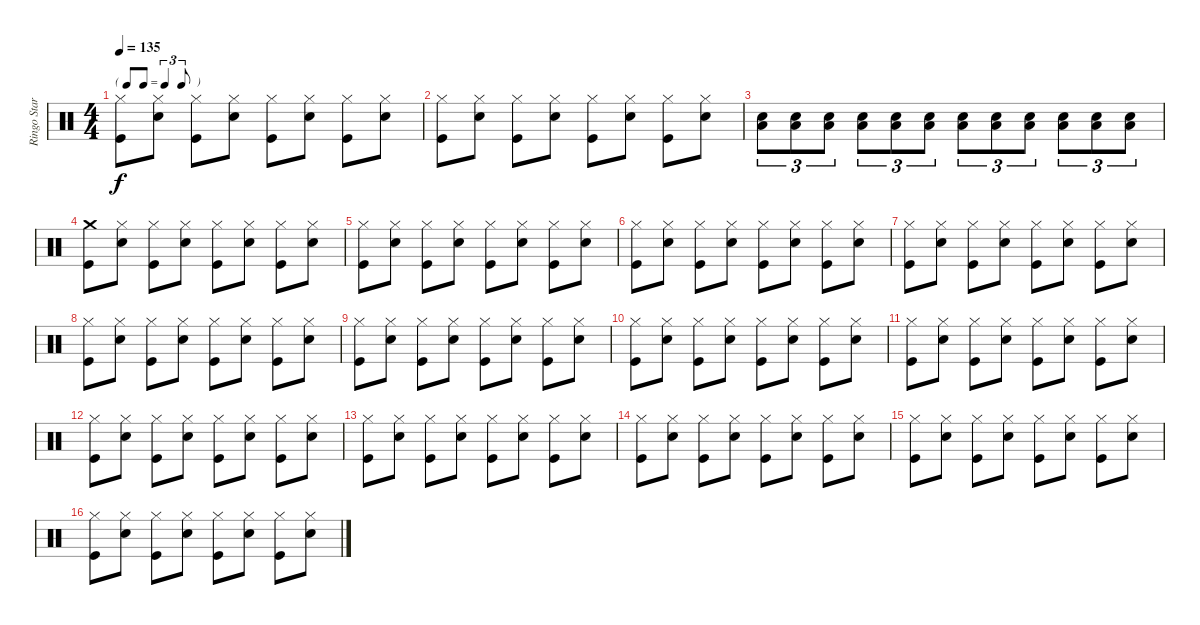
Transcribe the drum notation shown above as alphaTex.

\track ("Ringo Star" "Ringo Star") {instrument percussion}
\staff {score}
\articulation defaults
\ts (4 4)
\tf triplet8th
\tempo 135
\clef neutral
\ks c
("Hi-Hat (closed)" "Kick (hit)").8{dy f} ("Hi-Hat (closed)" "Snare (hit) 2").8 ("Hi-Hat (closed)" "Kick (hit)").8 ("Hi-Hat (closed)" "Snare (hit) 2").8 ("Hi-Hat (closed)" "Kick (hit)").8 ("Hi-Hat (closed)" "Snare (hit) 2").8 ("Hi-Hat (closed)" "Kick (hit)").8 ("Hi-Hat (closed)" "Snare (hit) 2").8 |
("Hi-Hat (closed)" "Kick (hit)").8 ("Hi-Hat (closed)" "Snare (hit) 2").8 ("Hi-Hat (closed)" "Kick (hit)").8 ("Hi-Hat (closed)" "Snare (hit) 2").8 ("Hi-Hat (closed)" "Kick (hit)").8 ("Hi-Hat (closed)" "Snare (hit) 2").8 ("Hi-Hat (closed)" "Kick (hit)").8 ("Hi-Hat (closed)" "Snare (hit) 2").8 |
("Snare (hit) 2" "Low Tom (hit)").8{tu (3 2)} ("Snare (hit) 2" "Low Tom (hit)").8{tu (3 2)} ("Snare (hit) 2" "Low Tom (hit)").8{tu (3 2)} ("Snare (hit) 2" "Low Tom (hit)").8{tu (3 2)} ("Snare (hit) 2" "Low Tom (hit)").8{tu (3 2)} ("Snare (hit) 2" "Low Tom (hit)").8{tu (3 2)} ("Snare (hit) 2" "Low Tom (hit)").8{tu (3 2)} ("Snare (hit) 2" "Low Tom (hit)").8{tu (3 2)} ("Snare (hit) 2" "Low Tom (hit)").8{tu (3 2)} ("Snare (hit) 2" "Low Tom (hit)").8{tu (3 2)} ("Snare (hit) 2" "Low Tom (hit)").8{tu (3 2)} ("Snare (hit) 2" "Low Tom (hit)").8{tu (3 2)} |
("Crash medium (hit)" "Kick (hit)").8 ("Hi-Hat (closed)" "Snare (hit) 2").8 ("Hi-Hat (closed)" "Kick (hit)").8 ("Hi-Hat (closed)" "Snare (hit) 2").8 ("Hi-Hat (closed)" "Kick (hit)").8 ("Hi-Hat (closed)" "Snare (hit) 2").8 ("Hi-Hat (closed)" "Kick (hit)").8 ("Hi-Hat (closed)" "Snare (hit) 2").8 |
("Hi-Hat (closed)" "Kick (hit)").8 ("Hi-Hat (closed)" "Snare (hit) 2").8 ("Hi-Hat (closed)" "Kick (hit)").8 ("Hi-Hat (closed)" "Snare (hit) 2").8 ("Hi-Hat (closed)" "Kick (hit)").8 ("Hi-Hat (closed)" "Snare (hit) 2").8 ("Hi-Hat (closed)" "Kick (hit)").8 ("Hi-Hat (closed)" "Snare (hit) 2").8 |
("Hi-Hat (closed)" "Kick (hit)").8 ("Hi-Hat (closed)" "Snare (hit) 2").8 ("Hi-Hat (closed)" "Kick (hit)").8 ("Hi-Hat (closed)" "Snare (hit) 2").8 ("Hi-Hat (closed)" "Kick (hit)").8 ("Hi-Hat (closed)" "Snare (hit) 2").8 ("Hi-Hat (closed)" "Kick (hit)").8 ("Hi-Hat (closed)" "Snare (hit) 2").8 |
("Hi-Hat (closed)" "Kick (hit)").8 ("Hi-Hat (closed)" "Snare (hit) 2").8 ("Hi-Hat (closed)" "Kick (hit)").8 ("Hi-Hat (closed)" "Snare (hit) 2").8 ("Hi-Hat (closed)" "Kick (hit)").8 ("Hi-Hat (closed)" "Snare (hit) 2").8 ("Hi-Hat (closed)" "Kick (hit)").8 ("Hi-Hat (closed)" "Snare (hit) 2").8 |
("Hi-Hat (closed)" "Kick (hit)").8 ("Hi-Hat (closed)" "Snare (hit) 2").8 ("Hi-Hat (closed)" "Kick (hit)").8 ("Hi-Hat (closed)" "Snare (hit) 2").8 ("Hi-Hat (closed)" "Kick (hit)").8 ("Hi-Hat (closed)" "Snare (hit) 2").8 ("Hi-Hat (closed)" "Kick (hit)").8 ("Hi-Hat (closed)" "Snare (hit) 2").8 |
("Hi-Hat (closed)" "Kick (hit)").8 ("Hi-Hat (closed)" "Snare (hit) 2").8 ("Hi-Hat (closed)" "Kick (hit)").8 ("Hi-Hat (closed)" "Snare (hit) 2").8 ("Hi-Hat (closed)" "Kick (hit)").8 ("Hi-Hat (closed)" "Snare (hit) 2").8 ("Hi-Hat (closed)" "Kick (hit)").8 ("Hi-Hat (closed)" "Snare (hit) 2").8 |
("Hi-Hat (closed)" "Kick (hit)").8 ("Hi-Hat (closed)" "Snare (hit) 2").8 ("Hi-Hat (closed)" "Kick (hit)").8 ("Hi-Hat (closed)" "Snare (hit) 2").8 ("Hi-Hat (closed)" "Kick (hit)").8 ("Hi-Hat (closed)" "Snare (hit) 2").8 ("Hi-Hat (closed)" "Kick (hit)").8 ("Hi-Hat (closed)" "Snare (hit) 2").8 |
("Hi-Hat (closed)" "Kick (hit)").8 ("Hi-Hat (closed)" "Snare (hit) 2").8 ("Hi-Hat (closed)" "Kick (hit)").8 ("Hi-Hat (closed)" "Snare (hit) 2").8 ("Hi-Hat (closed)" "Kick (hit)").8 ("Hi-Hat (closed)" "Snare (hit) 2").8 ("Hi-Hat (closed)" "Kick (hit)").8 ("Hi-Hat (closed)" "Snare (hit) 2").8 |
("Hi-Hat (closed)" "Kick (hit)").8 ("Hi-Hat (closed)" "Snare (hit) 2").8 ("Hi-Hat (closed)" "Kick (hit)").8 ("Hi-Hat (closed)" "Snare (hit) 2").8 ("Hi-Hat (closed)" "Kick (hit)").8 ("Hi-Hat (closed)" "Snare (hit) 2").8 ("Hi-Hat (closed)" "Kick (hit)").8 ("Hi-Hat (closed)" "Snare (hit) 2").8 |
("Hi-Hat (closed)" "Kick (hit)").8 ("Hi-Hat (closed)" "Snare (hit) 2").8 ("Hi-Hat (closed)" "Kick (hit)").8 ("Hi-Hat (closed)" "Snare (hit) 2").8 ("Hi-Hat (closed)" "Kick (hit)").8 ("Hi-Hat (closed)" "Snare (hit) 2").8 ("Hi-Hat (closed)" "Kick (hit)").8 ("Hi-Hat (closed)" "Snare (hit) 2").8 |
("Hi-Hat (closed)" "Kick (hit)").8 ("Hi-Hat (closed)" "Snare (hit) 2").8 ("Hi-Hat (closed)" "Kick (hit)").8 ("Hi-Hat (closed)" "Snare (hit) 2").8 ("Hi-Hat (closed)" "Kick (hit)").8 ("Hi-Hat (closed)" "Snare (hit) 2").8 ("Hi-Hat (closed)" "Kick (hit)").8 ("Hi-Hat (closed)" "Snare (hit) 2").8 |
("Hi-Hat (closed)" "Kick (hit)").8 ("Hi-Hat (closed)" "Snare (hit) 2").8 ("Hi-Hat (closed)" "Kick (hit)").8 ("Hi-Hat (closed)" "Snare (hit) 2").8 ("Hi-Hat (closed)" "Kick (hit)").8 ("Hi-Hat (closed)" "Snare (hit) 2").8 ("Hi-Hat (closed)" "Kick (hit)").8 ("Hi-Hat (closed)" "Snare (hit) 2").8 |
("Hi-Hat (closed)" "Kick (hit)").8 ("Hi-Hat (closed)" "Snare (hit) 2").8 ("Hi-Hat (closed)" "Kick (hit)").8 ("Hi-Hat (closed)" "Snare (hit) 2").8 ("Hi-Hat (closed)" "Kick (hit)").8 ("Hi-Hat (closed)" "Snare (hit) 2").8 ("Hi-Hat (closed)" "Kick (hit)").8 ("Hi-Hat (closed)" "Snare (hit) 2").8
